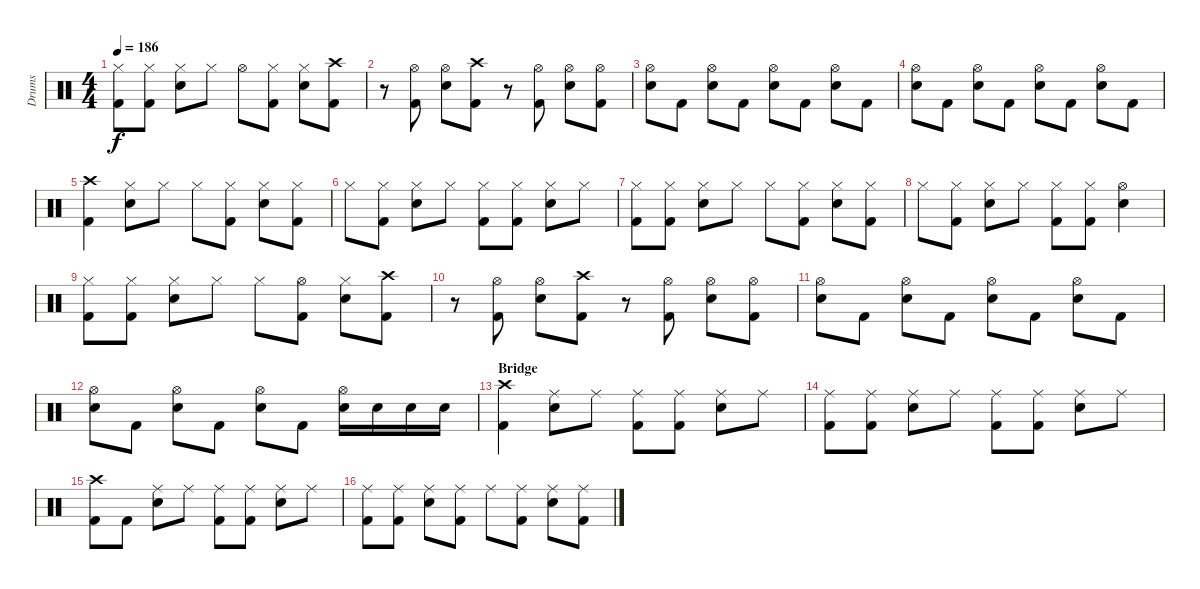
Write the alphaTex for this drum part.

\track ("Drums" "Drums") {instrument percussion}
\staff {score}
\articulation defaults
\ts (4 4)
\tempo 186
\clef neutral
\ks c
("Hi-Hat (closed)" "Kick (hit) 2").8{dy f} ("Hi-Hat (closed)" "Kick (hit) 2").8 ("Hi-Hat (closed)" "Snare (hit) 2").8 "Hi-Hat (closed)".8 "Hi-Hat (open)".8 ("Hi-Hat (closed)" "Kick (hit) 2").8 ("Hi-Hat (closed)" "Snare (hit) 2").8 ("Crash high (hit)" "Kick (hit) 2").8 |
r.8 ("Hi-Hat (open)" "Kick (hit) 2").8 ("Hi-Hat (open)" "Snare (hit) 2").8 ("Crash high (hit)" "Kick (hit) 2").8 r.8 ("Hi-Hat (open)" "Kick (hit) 2").8 ("Hi-Hat (open)" "Snare (hit) 2").8 ("Hi-Hat (open)" "Kick (hit) 2").8 |
("Hi-Hat (open)" "Snare (hit) 2").8 "Kick (hit) 2".8 ("Hi-Hat (open)" "Snare (hit) 2").8 "Kick (hit) 2".8 ("Hi-Hat (open)" "Snare (hit) 2").8 "Kick (hit) 2".8 ("Hi-Hat (open)" "Snare (hit) 2").8 "Kick (hit) 2".8 |
("Hi-Hat (open)" "Snare (hit) 2").8 "Kick (hit) 2".8 ("Hi-Hat (open)" "Snare (hit) 2").8 "Kick (hit) 2".8 ("Hi-Hat (open)" "Snare (hit) 2").8 "Kick (hit) 2".8 ("Hi-Hat (open)" "Snare (hit) 2").8 "Kick (hit) 2".8 |
("Crash high (hit)" "Kick (hit) 2").4 ("Hi-Hat (closed)" "Snare (hit) 2").8 "Hi-Hat (closed)".8 "Hi-Hat (closed)".8 ("Hi-Hat (closed)" "Kick (hit) 2").8 ("Hi-Hat (closed)" "Snare (hit) 2").8 ("Hi-Hat (closed)" "Kick (hit) 2").8 |
"Hi-Hat (closed)".8 ("Hi-Hat (closed)" "Kick (hit) 2").8 ("Hi-Hat (closed)" "Snare (hit) 2").8 "Hi-Hat (closed)".8 ("Hi-Hat (closed)" "Kick (hit) 2").8 ("Hi-Hat (closed)" "Kick (hit) 2").8 ("Hi-Hat (closed)" "Snare (hit) 2").8 "Hi-Hat (closed)".8 |
("Hi-Hat (closed)" "Kick (hit) 2").8 ("Hi-Hat (closed)" "Kick (hit) 2").8 ("Hi-Hat (closed)" "Snare (hit) 2").8 "Hi-Hat (closed)".8 "Hi-Hat (closed)".8 ("Hi-Hat (closed)" "Kick (hit) 2").8 ("Hi-Hat (closed)" "Snare (hit) 2").8 ("Hi-Hat (closed)" "Kick (hit) 2").8 |
"Hi-Hat (closed)".8 ("Hi-Hat (closed)" "Kick (hit) 2").8 ("Hi-Hat (closed)" "Snare (hit) 2").8 "Hi-Hat (closed)".8 ("Hi-Hat (closed)" "Kick (hit) 2").8 ("Hi-Hat (closed)" "Kick (hit) 2").8 ("Hi-Hat (open)" "Snare (hit) 2").4 |
("Hi-Hat (closed)" "Kick (hit) 2").8 ("Hi-Hat (closed)" "Kick (hit) 2").8 ("Hi-Hat (closed)" "Snare (hit) 2").8 "Hi-Hat (closed)".8 "Hi-Hat (closed)".8 ("Hi-Hat (open)" "Kick (hit) 2").8 ("Hi-Hat (closed)" "Snare (hit) 2").8 ("Crash high (hit)" "Kick (hit) 2").8 |
r.8 ("Hi-Hat (open)" "Kick (hit) 2").8 ("Hi-Hat (open)" "Snare (hit) 2").8 ("Crash high (hit)" "Kick (hit) 2").8 r.8 ("Hi-Hat (open)" "Kick (hit) 2").8 ("Hi-Hat (open)" "Snare (hit) 2").8 ("Hi-Hat (open)" "Kick (hit) 2").8 |
("Hi-Hat (open)" "Snare (hit) 2").8 "Kick (hit) 2".8 ("Hi-Hat (open)" "Snare (hit) 2").8 "Kick (hit) 2".8 ("Hi-Hat (open)" "Snare (hit) 2").8 "Kick (hit) 2".8 ("Hi-Hat (open)" "Snare (hit) 2").8 "Kick (hit) 2".8 |
("Hi-Hat (open)" "Snare (hit) 2").8 "Kick (hit) 2".8 ("Hi-Hat (open)" "Snare (hit) 2").8 "Kick (hit) 2".8 ("Hi-Hat (open)" "Snare (hit) 2").8 "Kick (hit) 2".8 ("Hi-Hat (open)" "Snare (hit) 2").16 "Snare (hit) 2".16 "Snare (hit) 2".16 "Snare (hit) 2".16 |
\section ("" "Bridge")
("Crash high (hit)" "Kick (hit) 2").4 ("Ride (middle)" "Snare (hit) 2").8 "Ride (middle)".8 ("Ride (middle)" "Kick (hit) 2").8 ("Ride (middle)" "Kick (hit) 2").8 ("Ride (middle)" "Snare (hit) 2").8 "Ride (middle)".8 |
("Ride (middle)" "Kick (hit) 2").8 ("Ride (middle)" "Kick (hit) 2").8 ("Ride (middle)" "Snare (hit) 2").8 "Ride (middle)".8 ("Ride (middle)" "Kick (hit) 2").8 ("Ride (middle)" "Kick (hit) 2").8 ("Ride (middle)" "Snare (hit) 2").8 "Ride (middle)".8 |
("Crash high (hit)" "Kick (hit) 2").8 "Kick (hit) 2".8 ("Ride (middle)" "Snare (hit) 2").8 "Ride (middle)".8 ("Ride (middle)" "Kick (hit) 2").8 ("Ride (middle)" "Kick (hit) 2").8 ("Ride (middle)" "Snare (hit) 2").8 "Ride (middle)".8 |
("Ride (middle)" "Kick (hit) 2").8 ("Ride (middle)" "Kick (hit) 2").8 ("Ride (middle)" "Snare (hit) 2").8 ("Ride (middle)" "Kick (hit) 2").8 "Ride (middle)".8 ("Ride (middle)" "Kick (hit) 2").8 ("Ride (middle)" "Snare (hit) 2").8 ("Ride (middle)" "Kick (hit) 2").8
